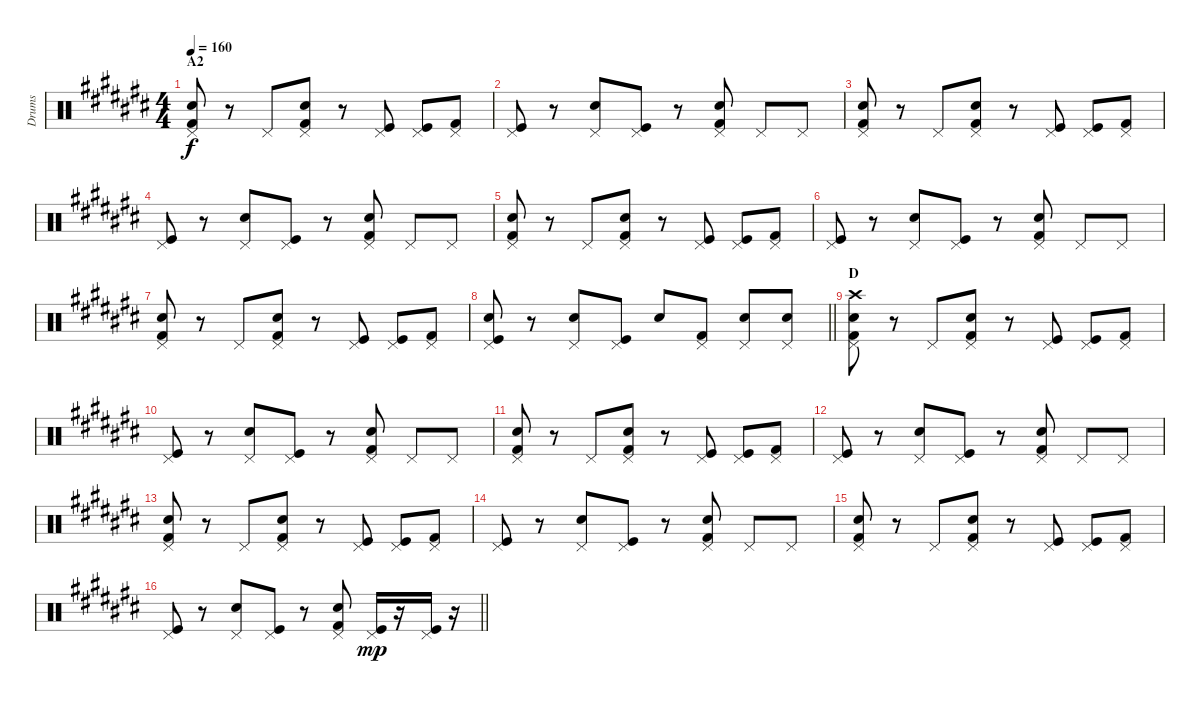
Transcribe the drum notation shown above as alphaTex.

\track ("Drums" "Drums") {instrument percussion}
\staff {score}
\articulation defaults
\ts (4 4)
\section ("" "A2")
\tempo 160
\clef neutral
\ks c#
("Pedal Hi-Hat (hit)" "Electric Snare (hit)" "Kick (hit) 2").8{dy f} r.8 "Pedal Hi-Hat (hit)".8 ("Pedal Hi-Hat (hit)" "Electric Snare (hit)" "Kick (hit) 2").8 r.8 ("Pedal Hi-Hat (hit)" "Kick (hit)").8 ("Pedal Hi-Hat (hit)" "Kick (hit)").8 ("Pedal Hi-Hat (hit)" "Kick (hit) 2").8 |
("Pedal Hi-Hat (hit)" "Kick (hit)").8 r.8 ("Pedal Hi-Hat (hit)" "Electric Snare (hit)").8 ("Pedal Hi-Hat (hit)" "Kick (hit)").8 r.8 ("Pedal Hi-Hat (hit)" "Electric Snare (hit)" "Kick (hit) 2").8 "Pedal Hi-Hat (hit)".8 "Pedal Hi-Hat (hit)".8 |
("Pedal Hi-Hat (hit)" "Electric Snare (hit)" "Kick (hit) 2").8 r.8 "Pedal Hi-Hat (hit)".8 ("Pedal Hi-Hat (hit)" "Electric Snare (hit)" "Kick (hit) 2").8 r.8 ("Pedal Hi-Hat (hit)" "Kick (hit)").8 ("Pedal Hi-Hat (hit)" "Kick (hit)").8 ("Pedal Hi-Hat (hit)" "Kick (hit) 2").8 |
("Pedal Hi-Hat (hit)" "Kick (hit)").8 r.8 ("Pedal Hi-Hat (hit)" "Electric Snare (hit)").8 ("Pedal Hi-Hat (hit)" "Kick (hit)").8 r.8 ("Pedal Hi-Hat (hit)" "Electric Snare (hit)" "Kick (hit) 2").8 "Pedal Hi-Hat (hit)".8 "Pedal Hi-Hat (hit)".8 |
("Pedal Hi-Hat (hit)" "Electric Snare (hit)" "Kick (hit) 2").8 r.8 "Pedal Hi-Hat (hit)".8 ("Pedal Hi-Hat (hit)" "Electric Snare (hit)" "Kick (hit) 2").8 r.8 ("Pedal Hi-Hat (hit)" "Kick (hit)").8 ("Pedal Hi-Hat (hit)" "Kick (hit)").8 ("Pedal Hi-Hat (hit)" "Kick (hit) 2").8 |
("Pedal Hi-Hat (hit)" "Kick (hit)").8 r.8 ("Pedal Hi-Hat (hit)" "Electric Snare (hit)").8 ("Pedal Hi-Hat (hit)" "Kick (hit)").8 r.8 ("Pedal Hi-Hat (hit)" "Electric Snare (hit)" "Kick (hit) 2").8 "Pedal Hi-Hat (hit)".8 "Pedal Hi-Hat (hit)".8 |
("Pedal Hi-Hat (hit)" "Electric Snare (hit)" "Kick (hit) 2").8 r.8 "Pedal Hi-Hat (hit)".8 ("Pedal Hi-Hat (hit)" "Electric Snare (hit)" "Kick (hit) 2").8 r.8 ("Pedal Hi-Hat (hit)" "Kick (hit)").8 ("Pedal Hi-Hat (hit)" "Kick (hit)").8 ("Pedal Hi-Hat (hit)" "Kick (hit) 2").8 |
\barLineRight lightlight
("Pedal Hi-Hat (hit)" "Electric Snare (hit)" "Kick (hit)").8 r.8 ("Pedal Hi-Hat (hit)" "Electric Snare (hit)").8 ("Pedal Hi-Hat (hit)" "Kick (hit)").8 "Electric Snare (hit)".8 ("Pedal Hi-Hat (hit)" "Kick (hit) 2").8 ("Pedal Hi-Hat (hit)" "Electric Snare (hit)").8 ("Pedal Hi-Hat (hit)" "Electric Snare (hit)").8 |
\section ("" "D")
("Pedal Hi-Hat (hit)" "Crash high (hit)" "Electric Snare (hit)" "Kick (hit) 2").8 r.8 "Pedal Hi-Hat (hit)".8 ("Pedal Hi-Hat (hit)" "Electric Snare (hit)" "Kick (hit) 2").8 r.8 ("Pedal Hi-Hat (hit)" "Kick (hit)").8 ("Pedal Hi-Hat (hit)" "Kick (hit)").8 ("Pedal Hi-Hat (hit)" "Kick (hit) 2").8 |
("Pedal Hi-Hat (hit)" "Kick (hit)").8 r.8 ("Pedal Hi-Hat (hit)" "Electric Snare (hit)").8 ("Pedal Hi-Hat (hit)" "Kick (hit)").8 r.8 ("Pedal Hi-Hat (hit)" "Electric Snare (hit)" "Kick (hit) 2").8 "Pedal Hi-Hat (hit)".8 "Pedal Hi-Hat (hit)".8 |
("Pedal Hi-Hat (hit)" "Electric Snare (hit)" "Kick (hit) 2").8 r.8 "Pedal Hi-Hat (hit)".8 ("Pedal Hi-Hat (hit)" "Electric Snare (hit)" "Kick (hit) 2").8 r.8 ("Pedal Hi-Hat (hit)" "Kick (hit)").8 ("Pedal Hi-Hat (hit)" "Kick (hit)").8 ("Pedal Hi-Hat (hit)" "Kick (hit) 2").8 |
("Pedal Hi-Hat (hit)" "Kick (hit)").8 r.8 ("Pedal Hi-Hat (hit)" "Electric Snare (hit)").8 ("Pedal Hi-Hat (hit)" "Kick (hit)").8 r.8 ("Pedal Hi-Hat (hit)" "Electric Snare (hit)" "Kick (hit) 2").8 "Pedal Hi-Hat (hit)".8 "Pedal Hi-Hat (hit)".8 |
("Pedal Hi-Hat (hit)" "Electric Snare (hit)" "Kick (hit) 2").8 r.8 "Pedal Hi-Hat (hit)".8 ("Pedal Hi-Hat (hit)" "Electric Snare (hit)" "Kick (hit) 2").8 r.8 ("Pedal Hi-Hat (hit)" "Kick (hit)").8 ("Pedal Hi-Hat (hit)" "Kick (hit)").8 ("Pedal Hi-Hat (hit)" "Kick (hit) 2").8 |
("Pedal Hi-Hat (hit)" "Kick (hit)").8 r.8 ("Pedal Hi-Hat (hit)" "Electric Snare (hit)").8 ("Pedal Hi-Hat (hit)" "Kick (hit)").8 r.8 ("Pedal Hi-Hat (hit)" "Electric Snare (hit)" "Kick (hit) 2").8 "Pedal Hi-Hat (hit)".8 "Pedal Hi-Hat (hit)".8 |
("Pedal Hi-Hat (hit)" "Electric Snare (hit)" "Kick (hit) 2").8 r.8 "Pedal Hi-Hat (hit)".8 ("Pedal Hi-Hat (hit)" "Electric Snare (hit)" "Kick (hit) 2").8 r.8 ("Pedal Hi-Hat (hit)" "Kick (hit)").8 ("Pedal Hi-Hat (hit)" "Kick (hit)").8 ("Pedal Hi-Hat (hit)" "Kick (hit) 2").8 |
\barLineRight lightlight
("Pedal Hi-Hat (hit)" "Kick (hit)").8 r.8 ("Pedal Hi-Hat (hit)" "Electric Snare (hit)").8 ("Pedal Hi-Hat (hit)" "Kick (hit)").8 r.8 ("Pedal Hi-Hat (hit)" "Electric Snare (hit)" "Kick (hit) 2").8 ("Pedal Hi-Hat (hit)" "Kick (hit)").16{dy mp} r.16 ("Pedal Hi-Hat (hit)" "Kick (hit)").16 r.16
